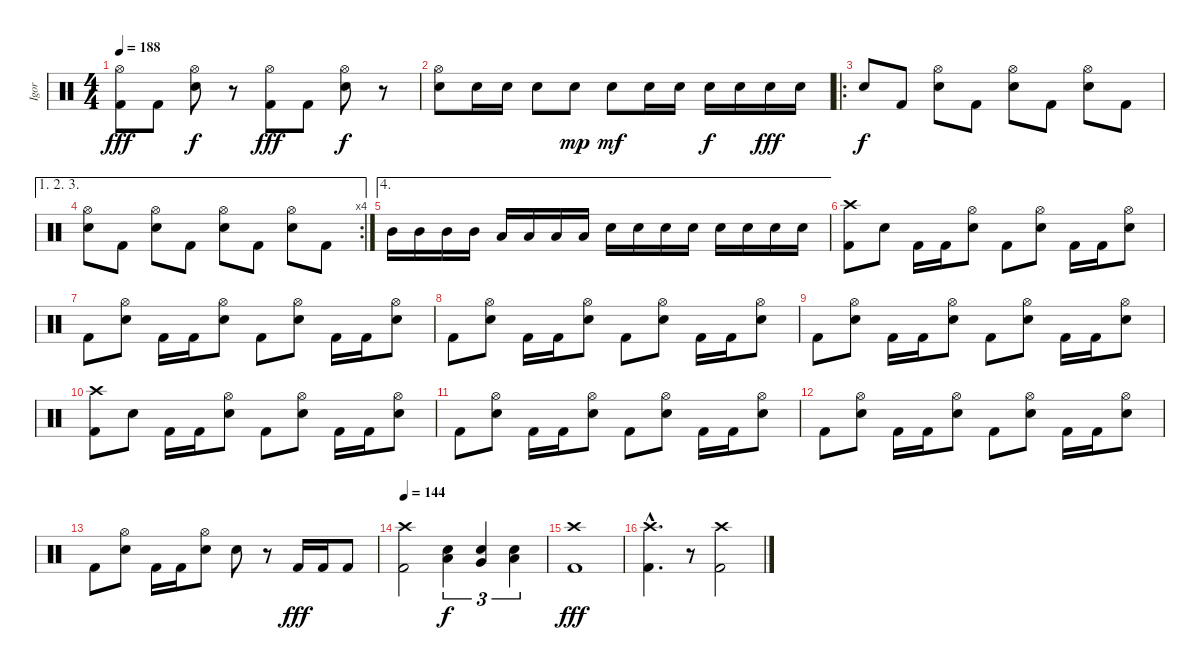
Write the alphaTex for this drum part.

\track ("Igor" "Igor") {instrument percussion}
\staff {score}
\articulation defaults
\ts (4 4)
\tempo 188
\clef neutral
\ks c
("Hi-Hat (open)" "Kick (hit) 2").8{dy fff} "Kick (hit) 2".8 ("Hi-Hat (open)" "Snare (hit) 2").8{dy f} r.8 ("Hi-Hat (open)" "Kick (hit) 2").8{dy fff} "Kick (hit) 2".8 ("Hi-Hat (open)" "Snare (hit) 2").8{dy f} r.8 |
("Hi-Hat (open)" "Snare (hit) 2").8 "Snare (hit) 2".16 "Snare (hit) 2".16 "Snare (hit) 2".8 "Snare (hit) 2".8{dy mp} "Snare (hit) 2".8{dy mf} "Snare (hit) 2".16 "Snare (hit) 2".16 "Snare (hit) 2".16{dy f} "Snare (hit) 2".16 "Snare (hit) 2".16{dy fff} "Snare (hit) 2".16 |
\ro "Snare (hit) 2".8{dy f} "Kick (hit) 2".8
("Hi-Hat (open)" "Snare (hit) 2").8 "Kick (hit) 2".8 ("Hi-Hat (open)" "Snare (hit) 2").8 "Kick (hit) 2".8 ("Hi-Hat (open)" "Snare (hit) 2").8 "Kick (hit) 2".8 |
\ae (1 2 3)
\rc 4
("Hi-Hat (open)" "Snare (hit) 2").8 "Kick (hit) 2".8 ("Hi-Hat (open)" "Snare (hit) 2").8 "Kick (hit) 2".8 ("Hi-Hat (open)" "Snare (hit) 2").8 "Kick (hit) 2".8 ("Hi-Hat (open)" "Snare (hit) 2").8 "Kick (hit) 2".8 |
\ae 4 "Mid Tom (hit)".16 "Mid Tom (hit)".16 "Mid Tom (hit)".16 "Mid Tom (hit)".16 "Low Tom (hit)".16 "Low Tom (hit)".16 "Low Tom (hit)".16 "Low Tom (hit)".16 "Snare (hit) 2".16 "Snare (hit) 2".16 "Snare (hit) 2".16 "Snare (hit) 2".16 "Snare (hit) 2".16 "Snare (hit) 2".16 "Snare (hit) 2".16 "Snare (hit) 2".16
|
("Crash high (hit)" "Kick (hit) 2").8 "Snare (hit) 2".8 "Kick (hit) 2".16 "Kick (hit) 2".16 ("Hi-Hat (open)" "Snare (hit) 2").8 "Kick (hit) 2".8 ("Hi-Hat (open)" "Snare (hit) 2").8 "Kick (hit) 2".16 "Kick (hit) 2".16 ("Hi-Hat (open)" "Snare (hit) 2").8 |
"Kick (hit) 2".8 ("Hi-Hat (open)" "Snare (hit) 2").8 "Kick (hit) 2".16 "Kick (hit) 2".16 ("Hi-Hat (open)" "Snare (hit) 2").8 "Kick (hit) 2".8 ("Hi-Hat (open)" "Snare (hit) 2").8 "Kick (hit) 2".16 "Kick (hit) 2".16 ("Hi-Hat (open)" "Snare (hit) 2").8 |
"Kick (hit) 2".8 ("Hi-Hat (open)" "Snare (hit) 2").8 "Kick (hit) 2".16 "Kick (hit) 2".16 ("Hi-Hat (open)" "Snare (hit) 2").8 "Kick (hit) 2".8 ("Hi-Hat (open)" "Snare (hit) 2").8 "Kick (hit) 2".16 "Kick (hit) 2".16 ("Hi-Hat (open)" "Snare (hit) 2").8 |
"Kick (hit) 2".8 ("Hi-Hat (open)" "Snare (hit) 2").8 "Kick (hit) 2".16 "Kick (hit) 2".16 ("Hi-Hat (open)" "Snare (hit) 2").8 "Kick (hit) 2".8 ("Hi-Hat (open)" "Snare (hit) 2").8 "Kick (hit) 2".16 "Kick (hit) 2".16 ("Hi-Hat (open)" "Snare (hit) 2").8 |
("Crash high (hit)" "Kick (hit) 2").8 "Snare (hit) 2".8 "Kick (hit) 2".16 "Kick (hit) 2".16 ("Hi-Hat (open)" "Snare (hit) 2").8 "Kick (hit) 2".8 ("Hi-Hat (open)" "Snare (hit) 2").8 "Kick (hit) 2".16 "Kick (hit) 2".16 ("Hi-Hat (open)" "Snare (hit) 2").8 |
"Kick (hit) 2".8 ("Hi-Hat (open)" "Snare (hit) 2").8 "Kick (hit) 2".16 "Kick (hit) 2".16 ("Hi-Hat (open)" "Snare (hit) 2").8 "Kick (hit) 2".8 ("Hi-Hat (open)" "Snare (hit) 2").8 "Kick (hit) 2".16 "Kick (hit) 2".16 ("Hi-Hat (open)" "Snare (hit) 2").8 |
"Kick (hit) 2".8 ("Hi-Hat (open)" "Snare (hit) 2").8 "Kick (hit) 2".16 "Kick (hit) 2".16 ("Hi-Hat (open)" "Snare (hit) 2").8 "Kick (hit) 2".8 ("Hi-Hat (open)" "Snare (hit) 2").8 "Kick (hit) 2".16 "Kick (hit) 2".16 ("Hi-Hat (open)" "Snare (hit) 2").8 |
"Kick (hit) 2".8 ("Hi-Hat (open)" "Snare (hit) 2").8 "Kick (hit) 2".16 "Kick (hit) 2".16 ("Hi-Hat (open)" "Snare (hit) 2").8 "Snare (hit) 2".8 r.8 "Kick (hit) 2".16{dy fff} "Kick (hit) 2".16 "Kick (hit) 2".8 |
\tempo 144
("Crash high (hit)" "Kick (hit) 2").2 ("Low Tom (hit)" "Snare (hit) 2").4{tu (3 2) dy f} ("Very Low Tom (hit)" "Snare (hit) 2").4{tu (3 2)} ("Low Floor Tom (hit)" "Snare (hit) 2").4{tu (3 2)} |
("Crash high (hit)" "Kick (hit) 2").1{dy fff} |
("Crash high (hit)"{hac} "Kick (hit) 2"{hac}).4{d} r.8 ("Crash high (hit)" "Kick (hit) 2").2
